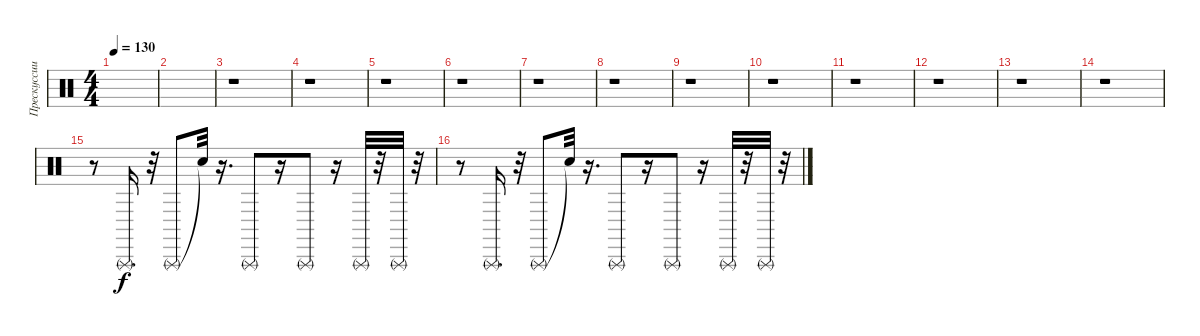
\track ("Прескуссии 1" "Прескуссии") {instrument percussion}
\staff {score}
\articulation defaults
\ts (4 4)
\tempo 130
\clef neutral
\ks c
|
|
r.1 |
r.1 |
r.1 |
r.1 |
r.1 |
r.1 |
r.1 |
r.1 |
r.1 |
r.1 |
r.1 |
r.1 |
r.8 "Triangle (rnute)".16{d} r.32 "Triangle (rnute)".8 "Snare (hit)"{t}.32 r.16{d} "Triangle (rnute)".8 r.16 "Triangle (rnute)".8 r.16 "Triangle (rnute)".32 r.32 "Triangle (rnute)".32 r.32 |
r.8 "Triangle (rnute)".16{d} r.32 "Triangle (rnute)".8 "Snare (hit)"{t}.32 r.16{d} "Triangle (rnute)".8 r.16 "Triangle (rnute)".8 r.16 "Triangle (rnute)".32 r.32 "Triangle (rnute)".32 r.32
